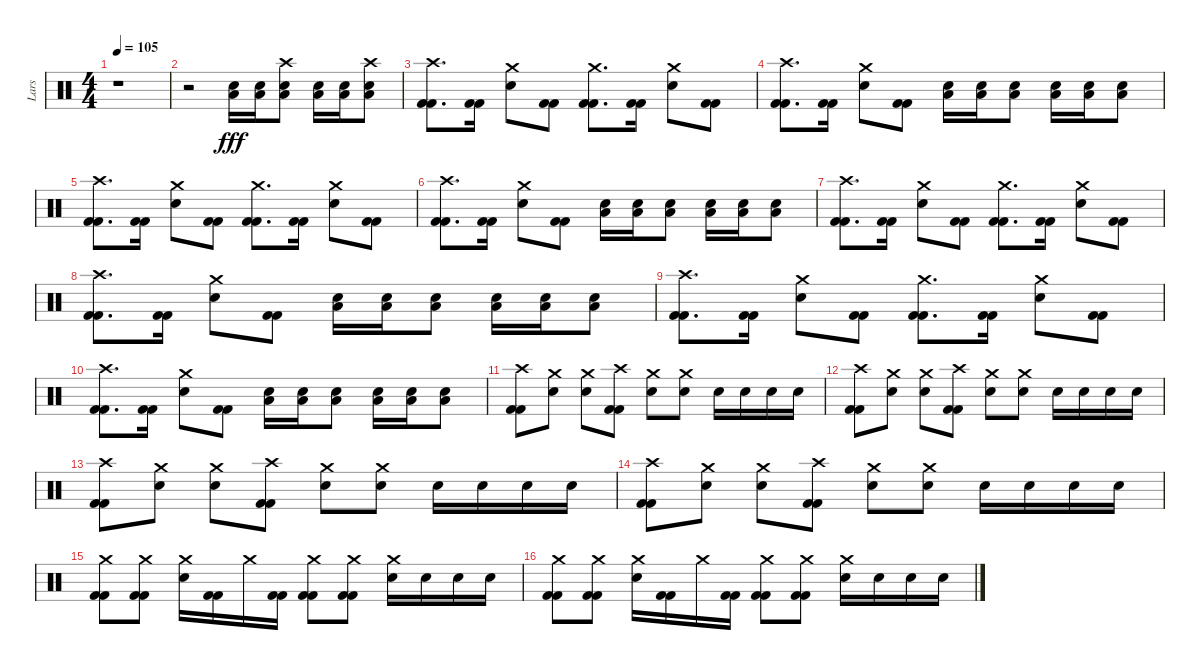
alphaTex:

\track ("Lars" "Lars") {instrument percussion}
\staff {score}
\articulation defaults
\ts (4 4)
\tempo 105
\clef neutral
\ks c
r.1{dy fff} |
r.2 ("Low Floor Tom (hit)" "Electric Snare (hit)").16 ("Low Floor Tom (hit)" "Electric Snare (hit)").16 ("Crash high (hit)" "Low Floor Tom (hit)" "Electric Snare (hit)").8 ("Low Floor Tom (hit)" "Electric Snare (hit)").16 ("Low Floor Tom (hit)" "Electric Snare (hit)").16 ("Crash high (hit)" "Low Floor Tom (hit)" "Electric Snare (hit)").8 |
("Crash high (hit)" "Kick (hit) 2" "Kick (hit) 2").8{d} ("Kick (hit) 2" "Kick (hit) 2").16 ("Crash medium (hit)" "Electric Snare (hit)").8 ("Kick (hit) 2" "Kick (hit) 2").8 ("Crash medium (hit)" "Kick (hit) 2" "Kick (hit) 2").8{d} ("Kick (hit) 2" "Kick (hit) 2").16 ("Crash medium (hit)" "Electric Snare (hit)").8 ("Kick (hit) 2" "Kick (hit) 2").8 |
("Crash high (hit)" "Kick (hit) 2" "Kick (hit) 2").8{d} ("Kick (hit) 2" "Kick (hit) 2").16 ("Crash medium (hit)" "Electric Snare (hit)").8 ("Kick (hit) 2" "Kick (hit) 2").8 ("Electric Snare (hit)" "Low Floor Tom (hit)").16 ("Electric Snare (hit)" "Low Floor Tom (hit)").16 ("Electric Snare (hit)" "Low Floor Tom (hit)").8 ("Electric Snare (hit)" "Low Floor Tom (hit)").16 ("Electric Snare (hit)" "Low Floor Tom (hit)").16 ("Electric Snare (hit)" "Low Floor Tom (hit)").8 |
("Crash high (hit)" "Kick (hit) 2" "Kick (hit) 2").8{d} ("Kick (hit) 2" "Kick (hit) 2").16 ("Crash medium (hit)" "Electric Snare (hit)").8 ("Kick (hit) 2" "Kick (hit) 2").8 ("Crash medium (hit)" "Kick (hit) 2" "Kick (hit) 2").8{d} ("Kick (hit) 2" "Kick (hit) 2").16 ("Crash medium (hit)" "Electric Snare (hit)").8 ("Kick (hit) 2" "Kick (hit) 2").8 |
("Crash high (hit)" "Kick (hit) 2" "Kick (hit) 2").8{d} ("Kick (hit) 2" "Kick (hit) 2").16 ("Crash medium (hit)" "Electric Snare (hit)").8 ("Kick (hit) 2" "Kick (hit) 2").8 ("Electric Snare (hit)" "Low Floor Tom (hit)").16 ("Electric Snare (hit)" "Low Floor Tom (hit)").16 ("Electric Snare (hit)" "Low Floor Tom (hit)").8 ("Electric Snare (hit)" "Low Floor Tom (hit)").16 ("Electric Snare (hit)" "Low Floor Tom (hit)").16 ("Electric Snare (hit)" "Low Floor Tom (hit)").8 |
("Crash high (hit)" "Kick (hit) 2" "Kick (hit) 2").8{d} ("Kick (hit) 2" "Kick (hit) 2").16 ("Crash medium (hit)" "Electric Snare (hit)").8 ("Kick (hit) 2" "Kick (hit) 2").8 ("Crash medium (hit)" "Kick (hit) 2" "Kick (hit) 2").8{d} ("Kick (hit) 2" "Kick (hit) 2").16 ("Crash medium (hit)" "Electric Snare (hit)").8 ("Kick (hit) 2" "Kick (hit) 2").8 |
("Crash high (hit)" "Kick (hit) 2" "Kick (hit) 2").8{d} ("Kick (hit) 2" "Kick (hit) 2").16 ("Crash medium (hit)" "Electric Snare (hit)").8 ("Kick (hit) 2" "Kick (hit) 2").8 ("Electric Snare (hit)" "Low Floor Tom (hit)").16 ("Electric Snare (hit)" "Low Floor Tom (hit)").16 ("Electric Snare (hit)" "Low Floor Tom (hit)").8 ("Electric Snare (hit)" "Low Floor Tom (hit)").16 ("Electric Snare (hit)" "Low Floor Tom (hit)").16 ("Electric Snare (hit)" "Low Floor Tom (hit)").8 |
("Crash high (hit)" "Kick (hit) 2" "Kick (hit) 2").8{d} ("Kick (hit) 2" "Kick (hit) 2").16 ("Crash medium (hit)" "Electric Snare (hit)").8 ("Kick (hit) 2" "Kick (hit) 2").8 ("Crash medium (hit)" "Kick (hit) 2" "Kick (hit) 2").8{d} ("Kick (hit) 2" "Kick (hit) 2").16 ("Crash medium (hit)" "Electric Snare (hit)").8 ("Kick (hit) 2" "Kick (hit) 2").8 |
("Crash high (hit)" "Kick (hit) 2" "Kick (hit) 2").8{d} ("Kick (hit) 2" "Kick (hit) 2").16 ("Crash medium (hit)" "Electric Snare (hit)").8 ("Kick (hit) 2" "Kick (hit) 2").8 ("Electric Snare (hit)" "Low Floor Tom (hit)").16 ("Electric Snare (hit)" "Low Floor Tom (hit)").16 ("Electric Snare (hit)" "Low Floor Tom (hit)").8 ("Electric Snare (hit)" "Low Floor Tom (hit)").16 ("Electric Snare (hit)" "Low Floor Tom (hit)").16 ("Electric Snare (hit)" "Low Floor Tom (hit)").8 |
("Crash high (hit)" "Kick (hit) 2" "Kick (hit) 2").8 ("Crash medium (hit)" "Electric Snare (hit)").8 ("Crash medium (hit)" "Electric Snare (hit)").8 ("Crash high (hit)" "Kick (hit) 2" "Kick (hit) 2").8 ("Crash medium (hit)" "Electric Snare (hit)").8 ("Crash medium (hit)" "Electric Snare (hit)").8 "Electric Snare (hit)".16 "Electric Snare (hit)".16 "Electric Snare (hit)".16 "Electric Snare (hit)".16 |
("Crash high (hit)" "Kick (hit) 2" "Kick (hit) 2").8 ("Crash medium (hit)" "Electric Snare (hit)").8 ("Crash medium (hit)" "Electric Snare (hit)").8 ("Crash high (hit)" "Kick (hit) 2" "Kick (hit) 2").8 ("Crash medium (hit)" "Electric Snare (hit)").8 ("Crash medium (hit)" "Electric Snare (hit)").8 "Electric Snare (hit)".16 "Electric Snare (hit)".16 "Electric Snare (hit)".16 "Electric Snare (hit)".16 |
("Crash high (hit)" "Kick (hit) 2" "Kick (hit) 2").8 ("Crash medium (hit)" "Electric Snare (hit)").8 ("Crash medium (hit)" "Electric Snare (hit)").8 ("Crash high (hit)" "Kick (hit) 2" "Kick (hit) 2").8 ("Crash medium (hit)" "Electric Snare (hit)").8 ("Crash medium (hit)" "Electric Snare (hit)").8 "Electric Snare (hit)".16 "Electric Snare (hit)".16 "Electric Snare (hit)".16 "Electric Snare (hit)".16 |
("Crash high (hit)" "Kick (hit) 2" "Kick (hit) 2").8 ("Crash medium (hit)" "Electric Snare (hit)").8 ("Crash medium (hit)" "Electric Snare (hit)").8 ("Crash high (hit)" "Kick (hit) 2" "Kick (hit) 2").8 ("Crash medium (hit)" "Electric Snare (hit)").8 ("Crash medium (hit)" "Electric Snare (hit)").8 "Electric Snare (hit)".16 "Electric Snare (hit)".16 "Electric Snare (hit)".16 "Electric Snare (hit)".16 |
("Crash medium (hit)" "Kick (hit) 2" "Kick (hit) 2").8 ("Crash medium (hit)" "Kick (hit) 2" "Kick (hit) 2").8 ("Crash medium (hit)" "Electric Snare (hit)").16 ("Kick (hit) 2" "Kick (hit) 2").16 "Crash medium (hit)".16 ("Kick (hit) 2" "Kick (hit) 2").16 ("Crash medium (hit)" "Kick (hit) 2" "Kick (hit) 2").8 ("Crash medium (hit)" "Kick (hit) 2" "Kick (hit) 2").8 ("Crash medium (hit)" "Electric Snare (hit)").16 "Electric Snare (hit)".16 "Electric Snare (hit)".16 "Electric Snare (hit)".16 |
("Crash medium (hit)" "Kick (hit) 2" "Kick (hit) 2").8 ("Crash medium (hit)" "Kick (hit) 2" "Kick (hit) 2").8 ("Crash medium (hit)" "Electric Snare (hit)").16 ("Kick (hit) 2" "Kick (hit) 2").16 "Crash medium (hit)".16 ("Kick (hit) 2" "Kick (hit) 2").16 ("Crash medium (hit)" "Kick (hit) 2" "Kick (hit) 2").8 ("Crash medium (hit)" "Kick (hit) 2" "Kick (hit) 2").8 ("Crash medium (hit)" "Electric Snare (hit)").16 "Electric Snare (hit)".16 "Electric Snare (hit)".16 "Electric Snare (hit)".16
